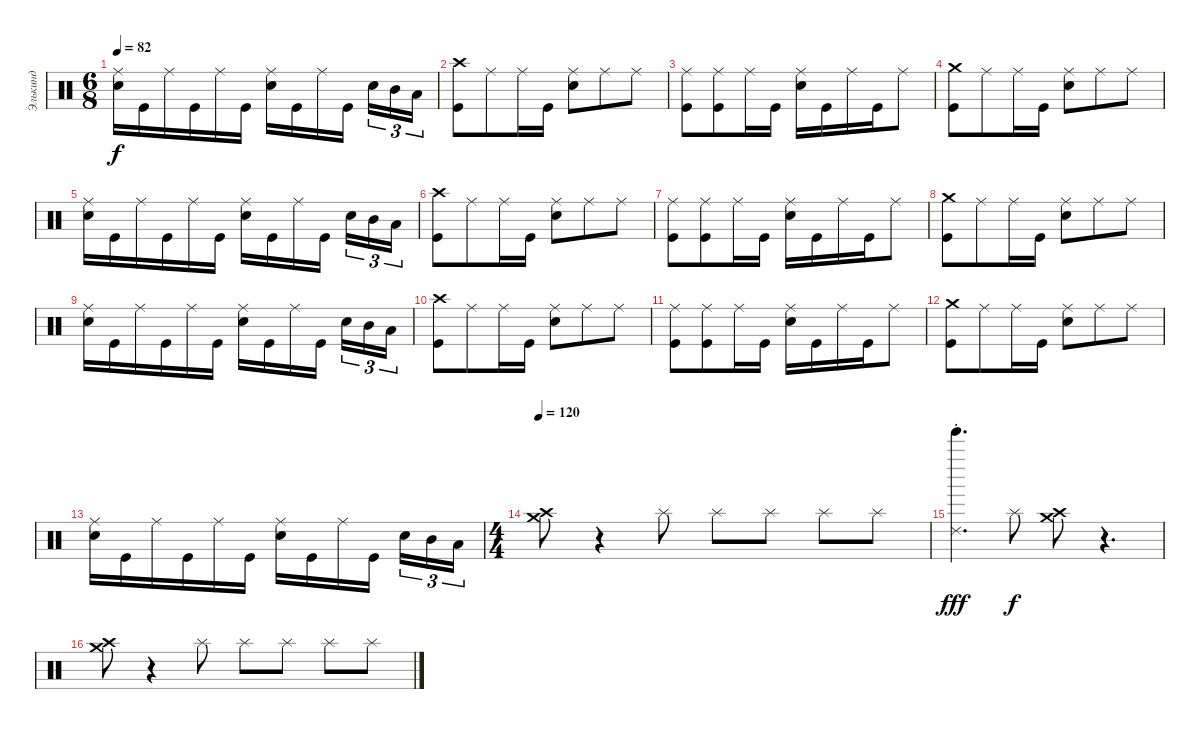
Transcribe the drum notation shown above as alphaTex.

\track ("Элькинд" "Элькинд") {instrument percussion}
\staff {score}
\articulation defaults
\ts (6 8)
\tempo 82
\clef neutral
\ks c
("Electric Snare (hit)" "Ride (middle)").16{dy f} "Kick (hit)".16 "Ride (middle)".16 "Kick (hit)".16 "Ride (middle)".16 "Kick (hit)".16 ("Ride (middle)" "Electric Snare (hit)").16 "Kick (hit)".16 "Ride (middle)".16 "Kick (hit)".16{beam splitsecondary} "Electric Snare (hit)".16{tu (3 2)} "Mid Tom (hit)".16{tu (3 2)} "Low Tom (hit)".16{tu (3 2)} |
("Kick (hit)" "Crash high (hit)").8 "Ride (middle)".8 "Ride (middle)".16 "Kick (hit)".16 ("Electric Snare (hit)" "Ride (middle)").8 "Ride (middle)".8 "Ride (middle)".8 |
("Ride (middle)" "Kick (hit)").8 ("Ride (middle)" "Kick (hit)").8 "Ride (middle)".16 "Kick (hit)".16 ("Ride (middle)" "Electric Snare (hit)").16 "Kick (hit)".16 "Ride (middle)".16 "Kick (hit)".16 "Ride (middle)".8 |
("Kick (hit)" "Crash medium (hit)").8 "Ride (middle)".8 "Ride (middle)".16 "Kick (hit)".16 ("Electric Snare (hit)" "Ride (middle)").8 "Ride (middle)".8 "Ride (middle)".8 |
("Electric Snare (hit)" "Ride (middle)").16 "Kick (hit)".16 "Ride (middle)".16 "Kick (hit)".16 "Ride (middle)".16 "Kick (hit)".16 ("Ride (middle)" "Electric Snare (hit)").16 "Kick (hit)".16 "Ride (middle)".16 "Kick (hit)".16{beam splitsecondary} "Electric Snare (hit)".16{tu (3 2)} "Mid Tom (hit)".16{tu (3 2)} "Low Tom (hit)".16{tu (3 2)} |
("Kick (hit)" "Crash high (hit)").8 "Ride (middle)".8 "Ride (middle)".16 "Kick (hit)".16 ("Electric Snare (hit)" "Ride (middle)").8 "Ride (middle)".8 "Ride (middle)".8 |
("Ride (middle)" "Kick (hit)").8 ("Ride (middle)" "Kick (hit)").8 "Ride (middle)".16 "Kick (hit)".16 ("Ride (middle)" "Electric Snare (hit)").16 "Kick (hit)".16 "Ride (middle)".16 "Kick (hit)".16 "Ride (middle)".8 |
("Kick (hit)" "Crash medium (hit)").8 "Ride (middle)".8 "Ride (middle)".16 "Kick (hit)".16 ("Electric Snare (hit)" "Ride (middle)").8 "Ride (middle)".8 "Ride (middle)".8 |
("Electric Snare (hit)" "Ride (middle)").16 "Kick (hit)".16 "Ride (middle)".16 "Kick (hit)".16 "Ride (middle)".16 "Kick (hit)".16 ("Ride (middle)" "Electric Snare (hit)").16 "Kick (hit)".16 "Ride (middle)".16 "Kick (hit)".16{beam splitsecondary} "Electric Snare (hit)".16{tu (3 2)} "Mid Tom (hit)".16{tu (3 2)} "Low Tom (hit)".16{tu (3 2)} |
("Kick (hit)" "Crash high (hit)").8 "Ride (middle)".8 "Ride (middle)".16 "Kick (hit)".16 ("Electric Snare (hit)" "Ride (middle)").8 "Ride (middle)".8 "Ride (middle)".8 |
("Ride (middle)" "Kick (hit)").8 ("Ride (middle)" "Kick (hit)").8 "Ride (middle)".16 "Kick (hit)".16 ("Ride (middle)" "Electric Snare (hit)").16 "Kick (hit)".16 "Ride (middle)".16 "Kick (hit)".16 "Ride (middle)".8 |
("Kick (hit)" "Crash medium (hit)").8 "Ride (middle)".8 "Ride (middle)".16 "Kick (hit)".16 ("Electric Snare (hit)" "Ride (middle)").8 "Ride (middle)".8 "Ride (middle)".8 |
("Electric Snare (hit)" "Ride (middle)").16 "Kick (hit)".16 "Ride (middle)".16 "Kick (hit)".16 "Ride (middle)".16 "Kick (hit)".16 ("Ride (middle)" "Electric Snare (hit)").16 "Kick (hit)".16 "Ride (middle)".16 "Kick (hit)".16{beam splitsecondary} "Electric Snare (hit)".16{tu (3 2)} "Mid Tom (hit)".16{tu (3 2)} "Low Tom (hit)".16{tu (3 2)} |
\ts (4 4)
\tempo 120
("Crash high (hit)" "Crash medium (hit)").8 r.4 "Splash (hit)".8 "Splash (hit)".8 "Splash (hit)".8 "Splash (hit)".8 "Splash (hit)".8 |
("Tinkle Bell (hit)" "Ride (choke) 2").4{d dy fff} "Splash (hit)".8{dy f} ("Crash high (hit)" "Crash medium (hit)").8 r.4{d} |
("Crash high (hit)" "Crash medium (hit)").8 r.4 "Splash (hit)".8 "Splash (hit)".8 "Splash (hit)".8 "Splash (hit)".8 "Splash (hit)".8
